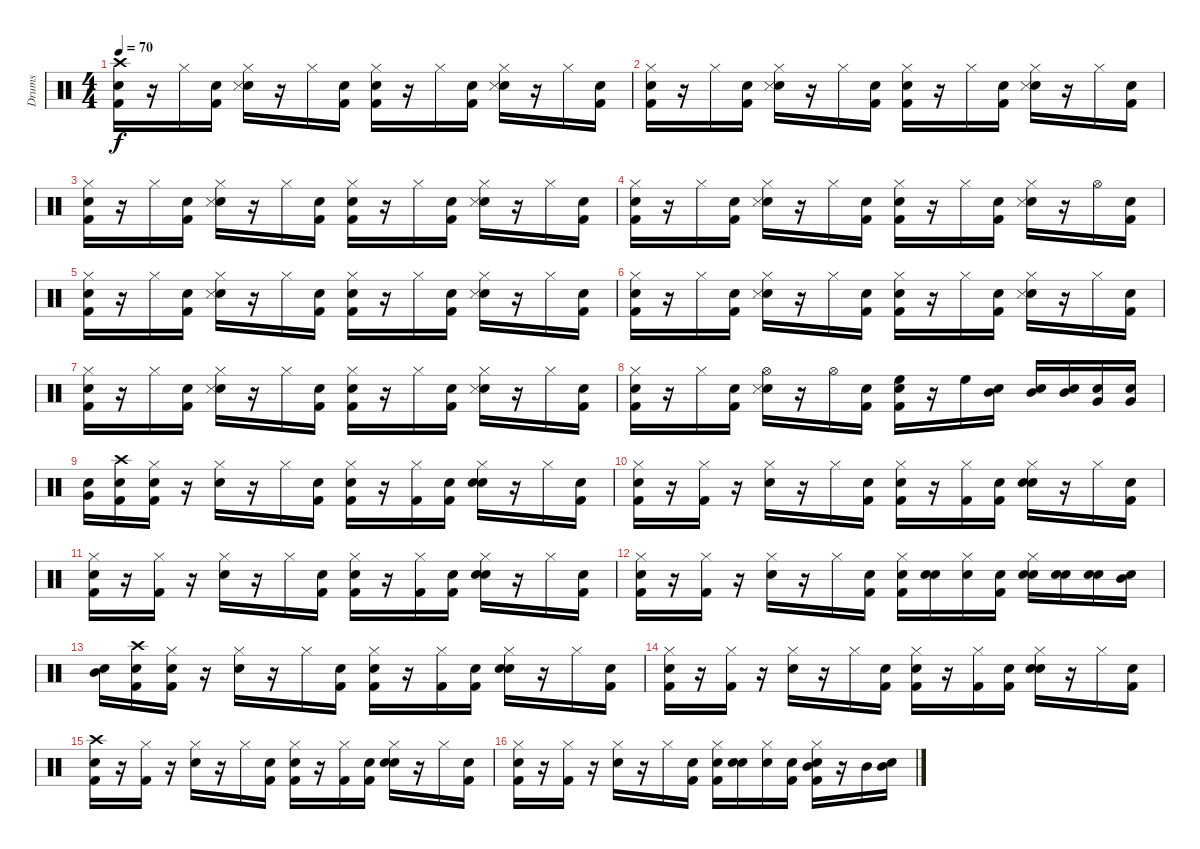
\track ("Drums" "Drums") {instrument percussion}
\staff {score}
\articulation defaults
\ts (4 4)
\tempo 70
\clef neutral
\ks c
("Snare (hit)" "Kick (hit) 2" "Crash high (hit)").16{dy f} r.16 "Hi-Hat (closed)".16 ("Snare (hit)" "Kick (hit) 2").16 ("Snare (hit)" "Snare (side stick) 3" "Hi-Hat (closed)").16 r.16 "Hi-Hat (closed)".16 ("Snare (hit)" "Kick (hit) 2").16 ("Snare (hit)" "Kick (hit) 2" "Hi-Hat (closed)").16 r.16 "Hi-Hat (closed)".16 ("Snare (hit)" "Kick (hit) 2").16 ("Snare (hit)" "Snare (side stick) 3" "Hi-Hat (closed)").16 r.16 "Hi-Hat (closed)".16 ("Snare (hit)" "Kick (hit) 2").16 |
("Snare (hit)" "Kick (hit) 2" "Hi-Hat (closed)").16 r.16 "Hi-Hat (closed)".16 ("Snare (hit)" "Kick (hit) 2").16 ("Snare (hit)" "Snare (side stick) 3" "Hi-Hat (closed)").16 r.16 "Hi-Hat (closed)".16 ("Snare (hit)" "Kick (hit) 2").16 ("Snare (hit)" "Kick (hit) 2" "Hi-Hat (closed)").16 r.16 "Hi-Hat (closed)".16 ("Snare (hit)" "Kick (hit) 2").16 ("Snare (hit)" "Snare (side stick) 3" "Hi-Hat (closed)").16 r.16 "Hi-Hat (closed)".16 ("Snare (hit)" "Kick (hit) 2").16 |
("Snare (hit)" "Kick (hit) 2" "Hi-Hat (closed)").16 r.16 "Hi-Hat (closed)".16 ("Snare (hit)" "Kick (hit) 2").16 ("Snare (hit)" "Snare (side stick) 3" "Hi-Hat (closed)").16 r.16 "Hi-Hat (closed)".16 ("Snare (hit)" "Kick (hit) 2").16 ("Snare (hit)" "Kick (hit) 2" "Hi-Hat (closed)").16 r.16 "Hi-Hat (closed)".16 ("Snare (hit)" "Kick (hit) 2").16 ("Snare (hit)" "Snare (side stick) 3" "Hi-Hat (closed)").16 r.16 "Hi-Hat (closed)".16 ("Snare (hit)" "Kick (hit) 2").16 |
("Snare (hit)" "Kick (hit) 2" "Hi-Hat (closed)").16 r.16 "Hi-Hat (closed)".16 ("Snare (hit)" "Kick (hit) 2").16 ("Snare (hit)" "Snare (side stick) 3" "Hi-Hat (closed)").16 r.16 "Hi-Hat (closed)".16 ("Snare (hit)" "Kick (hit) 2").16 ("Snare (hit)" "Kick (hit) 2" "Hi-Hat (closed)").16 r.16 "Hi-Hat (closed)".16 ("Snare (hit)" "Kick (hit) 2").16 ("Snare (hit)" "Snare (side stick) 3" "Hi-Hat (closed)").16 r.16 "Hi-Hat (open)".16 ("Snare (hit)" "Kick (hit) 2").16 |
("Snare (hit)" "Kick (hit) 2" "Hi-Hat (closed)").16 r.16 "Hi-Hat (closed)".16 ("Snare (hit)" "Kick (hit) 2").16 ("Snare (hit)" "Snare (side stick) 3" "Hi-Hat (closed)").16 r.16 "Hi-Hat (closed)".16 ("Snare (hit)" "Kick (hit) 2").16 ("Snare (hit)" "Kick (hit) 2" "Hi-Hat (closed)").16 r.16 "Hi-Hat (closed)".16 ("Snare (hit)" "Kick (hit) 2").16 ("Snare (hit)" "Snare (side stick) 3" "Hi-Hat (closed)").16 r.16 "Hi-Hat (closed)".16 ("Snare (hit)" "Kick (hit) 2").16 |
("Snare (hit)" "Kick (hit) 2" "Hi-Hat (closed)").16 r.16 "Hi-Hat (closed)".16 ("Snare (hit)" "Kick (hit) 2").16 ("Snare (hit)" "Snare (side stick) 3" "Hi-Hat (closed)").16 r.16 "Hi-Hat (closed)".16 ("Snare (hit)" "Kick (hit) 2").16 ("Snare (hit)" "Kick (hit) 2" "Hi-Hat (closed)").16 r.16 "Hi-Hat (closed)".16 ("Snare (hit)" "Kick (hit) 2").16 ("Snare (hit)" "Snare (side stick) 3" "Hi-Hat (closed)").16 r.16 "Hi-Hat (closed)".16 ("Snare (hit)" "Kick (hit) 2").16 |
("Snare (hit)" "Kick (hit) 2" "Hi-Hat (closed)").16 r.16 "Hi-Hat (closed)".16 ("Snare (hit)" "Kick (hit) 2").16 ("Snare (hit)" "Snare (side stick) 3" "Hi-Hat (closed)").16 r.16 "Hi-Hat (closed)".16 ("Snare (hit)" "Kick (hit) 2").16 ("Snare (hit)" "Kick (hit) 2" "Hi-Hat (closed)").16 r.16 "Hi-Hat (closed)".16 ("Snare (hit)" "Kick (hit) 2").16 ("Snare (hit)" "Snare (side stick) 3" "Hi-Hat (closed)").16 r.16 "Hi-Hat (closed)".16 ("Snare (hit)" "Kick (hit) 2").16 |
("Snare (hit)" "Kick (hit) 2" "Hi-Hat (closed)").16 r.16 "Hi-Hat (closed)".16 ("Snare (hit)" "Kick (hit) 2").16 ("Snare (hit)" "Snare (side stick) 3" "Hi-Hat (open)").16 r.16 "Hi-Hat (open)".16 ("Snare (hit)" "Kick (hit) 2").16 ("Snare (hit)" "Kick (hit) 2" "High Floor Tom (hit)").16 r.16 "High Floor Tom (hit)".16 ("Snare (hit)" "Mid Tom (hit)").16 ("Snare (hit)" "Mid Tom (hit)").16 ("Snare (hit)" "Mid Tom (hit)").16 ("Snare (hit)" "Very Low Tom (hit)").16 ("Snare (hit)" "Very Low Tom (hit)").16 |
("Snare (hit)" "Very Low Tom (hit)").16 ("Snare (hit)" "Kick (hit) 2" "Crash high (hit)").16 ("Snare (hit)" "Kick (hit) 2" "Hi-Hat (closed)").16 r.16 ("Snare (hit) 2" "Hi-Hat (closed)").16 r.16 "Hi-Hat (closed)".16 ("Snare (hit)" "Kick (hit) 2").16 ("Snare (hit)" "Kick (hit) 2" "Hi-Hat (closed)").16 r.16 ("Kick (hit) 2" "Hi-Hat (closed)").16 ("Snare (hit)" "Kick (hit) 2").16 ("Snare (hit)" "Snare (hit) 2" "Hi-Hat (closed)").16 r.16 "Hi-Hat (closed)".16 ("Snare (hit)" "Kick (hit) 2").16 |
("Snare (hit)" "Kick (hit) 2" "Hi-Hat (closed)").16 r.16 ("Kick (hit) 2" "Hi-Hat (closed)").16 r.16 ("Snare (hit) 2" "Hi-Hat (closed)").16 r.16 "Hi-Hat (closed)".16 ("Snare (hit)" "Kick (hit) 2").16 ("Snare (hit)" "Kick (hit) 2" "Hi-Hat (closed)").16 r.16 ("Kick (hit) 2" "Hi-Hat (closed)").16 ("Snare (hit)" "Kick (hit) 2").16 ("Snare (hit)" "Snare (hit) 2" "Hi-Hat (closed)").16 r.16 "Hi-Hat (closed)".16 ("Snare (hit)" "Kick (hit) 2").16 |
("Snare (hit)" "Kick (hit) 2" "Hi-Hat (closed)").16 r.16 ("Kick (hit) 2" "Hi-Hat (closed)").16 r.16 ("Snare (hit) 2" "Hi-Hat (closed)").16 r.16 "Hi-Hat (closed)".16 ("Snare (hit)" "Kick (hit) 2").16 ("Snare (hit)" "Kick (hit) 2" "Hi-Hat (closed)").16 r.16 ("Kick (hit) 2" "Hi-Hat (closed)").16 ("Snare (hit)" "Kick (hit) 2").16 ("Snare (hit)" "Snare (hit) 2" "Hi-Hat (closed)").16 r.16 "Hi-Hat (closed)".16 ("Snare (hit)" "Kick (hit) 2").16 |
("Snare (hit)" "Kick (hit) 2" "Hi-Hat (closed)").16 r.16 ("Kick (hit) 2" "Hi-Hat (closed)").16 r.16 ("Snare (hit) 2" "Hi-Hat (closed)").16 r.16 "Hi-Hat (closed)".16 ("Snare (hit)" "Kick (hit) 2").16 ("Snare (hit)" "Kick (hit) 2" "Hi-Hat (closed)").16 ("Snare (hit)" "Snare (hit) 2").16 ("Snare (hit)" "Hi-Hat (closed)").16 ("Snare (hit)" "Kick (hit) 2").16 ("Snare (hit)" "Snare (hit) 2" "Hi-Hat (closed)").16 ("Snare (hit)" "Snare (hit) 2").16 ("Snare (hit)" "Snare (hit) 2").16 ("Snare (hit)" "Mid Tom (hit)").16 |
("Snare (hit)" "Mid Tom (hit)").16 ("Snare (hit)" "Kick (hit) 2" "Crash high (hit)").16 ("Snare (hit)" "Kick (hit) 2" "Hi-Hat (closed)").16 r.16 ("Snare (hit) 2" "Hi-Hat (closed)").16 r.16 "Hi-Hat (closed)".16 ("Snare (hit)" "Kick (hit) 2").16 ("Snare (hit)" "Kick (hit) 2" "Hi-Hat (closed)").16 r.16 ("Kick (hit) 2" "Hi-Hat (closed)").16 ("Snare (hit)" "Kick (hit) 2").16 ("Snare (hit)" "Snare (hit) 2" "Hi-Hat (closed)").16 r.16 "Hi-Hat (closed)".16 ("Snare (hit)" "Kick (hit) 2").16 |
("Snare (hit)" "Kick (hit) 2" "Hi-Hat (closed)").16 r.16 ("Kick (hit) 2" "Hi-Hat (closed)").16 r.16 ("Snare (hit) 2" "Hi-Hat (closed)").16 r.16 "Hi-Hat (closed)".16 ("Snare (hit)" "Kick (hit) 2").16 ("Snare (hit)" "Kick (hit) 2" "Hi-Hat (closed)").16 r.16 ("Kick (hit) 2" "Hi-Hat (closed)").16 ("Snare (hit)" "Kick (hit) 2").16 ("Snare (hit)" "Snare (hit) 2" "Hi-Hat (closed)").16 r.16 "Hi-Hat (closed)".16 ("Snare (hit)" "Kick (hit) 2").16 |
("Snare (hit)" "Kick (hit) 2" "Crash high (hit)").16 r.16 ("Kick (hit) 2" "Hi-Hat (closed)").16 r.16 ("Snare (hit) 2" "Hi-Hat (closed)").16 r.16 "Hi-Hat (closed)".16 ("Snare (hit)" "Kick (hit) 2").16 ("Snare (hit)" "Kick (hit) 2" "Hi-Hat (closed)").16 r.16 ("Kick (hit) 2" "Hi-Hat (closed)").16 ("Snare (hit)" "Kick (hit) 2").16 ("Snare (hit)" "Snare (hit) 2" "Hi-Hat (closed)").16 r.16 "Hi-Hat (closed)".16 ("Snare (hit)" "Kick (hit) 2").16 |
("Snare (hit)" "Kick (hit) 2" "Hi-Hat (closed)").16 r.16 ("Kick (hit) 2" "Hi-Hat (closed)").16 r.16 ("Snare (hit) 2" "Hi-Hat (closed)").16 r.16 "Hi-Hat (closed)".16 ("Snare (hit)" "Kick (hit) 2").16 ("Snare (hit)" "Kick (hit) 2" "Hi-Hat (closed)").16 ("Snare (hit)" "Snare (hit) 2").16 ("Snare (hit)" "Hi-Hat (closed)").16 ("Snare (hit)" "Kick (hit) 2").16 ("Snare (hit)" "Kick (hit) 2" "Hi-Hat (closed)" "Mid Tom (hit)").16 r.16 "Mid Tom (hit)".16 ("Snare (hit)" "Mid Tom (hit)").16
